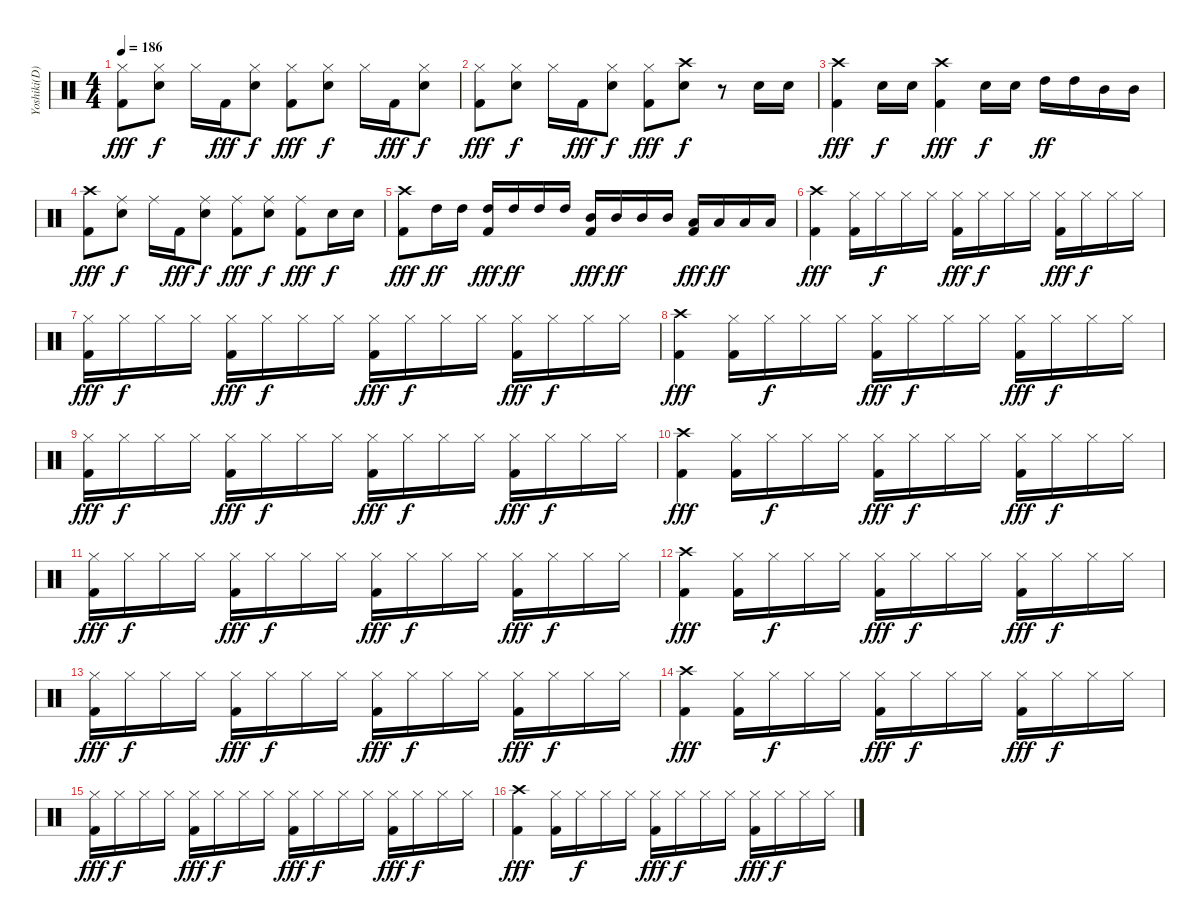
\track ("Yoshiki(D)" "Yoshiki(D)") {instrument percussion}
\staff {score}
\articulation defaults
\ts (4 4)
\tempo 186
\clef neutral
\ks c
("Hi-Hat (closed)" "Kick (hit) 2").8{dy fff} ("Hi-Hat (closed)" "Electric Snare (hit)").8{dy f} "Hi-Hat (closed)".16 "Kick (hit) 2".16{dy fff} ("Hi-Hat (closed)" "Electric Snare (hit)").8{dy f} ("Hi-Hat (closed)" "Kick (hit) 2").8{dy fff} ("Hi-Hat (closed)" "Electric Snare (hit)").8{dy f} "Hi-Hat (closed)".16 "Kick (hit) 2".16{dy fff} ("Hi-Hat (closed)" "Electric Snare (hit)").8{dy f} |
("Hi-Hat (closed)" "Kick (hit) 2").8{dy fff} ("Hi-Hat (closed)" "Electric Snare (hit)").8{dy f} "Hi-Hat (closed)".16 "Kick (hit) 2".16{dy fff} ("Hi-Hat (closed)" "Electric Snare (hit)").8{dy f} ("Hi-Hat (closed)" "Kick (hit) 2").8{dy fff} ("Crash high (hit)" "Electric Snare (hit)").8{dy f} r.8 "Electric Snare (hit)".16 "Electric Snare (hit)".16 |
("Crash high (hit)" "Kick (hit) 2").4{dy fff} "Electric Snare (hit)".16{dy f} "Electric Snare (hit)".16 ("Crash high (hit)" "Kick (hit) 2").4{dy fff} "Electric Snare (hit)".16{dy f} "Electric Snare (hit)".16 "High Tom (hit)".16{dy ff} "High Tom (hit)".16 "Mid Tom (hit)".16 "Mid Tom (hit)".16 |
("Crash high (hit)" "Kick (hit) 2").8{dy fff} ("Ride (middle)" "Electric Snare (hit)").8{dy f} "Ride (middle)".16 "Kick (hit) 2".16{dy fff} ("Ride (middle)" "Electric Snare (hit)").8{dy f} ("Ride (middle)" "Kick (hit) 2").8{dy fff} ("Ride (middle)" "Electric Snare (hit)").8{dy f} ("Ride (middle)" "Kick (hit) 2").8{dy fff} "Electric Snare (hit)".16{dy f} "Electric Snare (hit)".16 |
("Crash high (hit)" "Kick (hit) 2").8{dy fff} "High Tom (hit)".16{dy ff} "High Tom (hit)".16 ("High Tom (hit)" "Kick (hit) 2").16{dy fff} "High Tom (hit)".16{dy ff} "High Tom (hit)".16 "High Tom (hit)".16 ("Mid Tom (hit)" "Kick (hit) 2").16{dy fff} "Mid Tom (hit)".16{dy ff} "Mid Tom (hit)".16 "Mid Tom (hit)".16 ("Low Tom (hit)" "Kick (hit) 2").16{dy fff} "Low Tom (hit)".16{dy ff} "Low Tom (hit)".16 "Low Tom (hit)".16 |
("Crash high (hit)" "Kick (hit) 2").4{dy fff} ("Hi-Hat (closed)" "Kick (hit) 2").16 "Hi-Hat (closed)".16{dy f} "Hi-Hat (closed)".16 "Hi-Hat (closed)".16 ("Hi-Hat (closed)" "Kick (hit) 2").16{dy fff} "Hi-Hat (closed)".16{dy f} "Hi-Hat (closed)".16 "Hi-Hat (closed)".16 ("Hi-Hat (closed)" "Kick (hit) 2").16{dy fff} "Hi-Hat (closed)".16{dy f} "Hi-Hat (closed)".16 "Hi-Hat (closed)".16 |
("Hi-Hat (closed)" "Kick (hit) 2").16{dy fff} "Hi-Hat (closed)".16{dy f} "Hi-Hat (closed)".16 "Hi-Hat (closed)".16 ("Hi-Hat (closed)" "Kick (hit) 2").16{dy fff} "Hi-Hat (closed)".16{dy f} "Hi-Hat (closed)".16 "Hi-Hat (closed)".16 ("Hi-Hat (closed)" "Kick (hit) 2").16{dy fff} "Hi-Hat (closed)".16{dy f} "Hi-Hat (closed)".16 "Hi-Hat (closed)".16 ("Hi-Hat (closed)" "Kick (hit) 2").16{dy fff} "Hi-Hat (closed)".16{dy f} "Hi-Hat (closed)".16 "Hi-Hat (closed)".16 |
("Crash high (hit)" "Kick (hit) 2").4{dy fff} ("Hi-Hat (closed)" "Kick (hit) 2").16 "Hi-Hat (closed)".16{dy f} "Hi-Hat (closed)".16 "Hi-Hat (closed)".16 ("Hi-Hat (closed)" "Kick (hit) 2").16{dy fff} "Hi-Hat (closed)".16{dy f} "Hi-Hat (closed)".16 "Hi-Hat (closed)".16 ("Hi-Hat (closed)" "Kick (hit) 2").16{dy fff} "Hi-Hat (closed)".16{dy f} "Hi-Hat (closed)".16 "Hi-Hat (closed)".16 |
("Hi-Hat (closed)" "Kick (hit) 2").16{dy fff} "Hi-Hat (closed)".16{dy f} "Hi-Hat (closed)".16 "Hi-Hat (closed)".16 ("Hi-Hat (closed)" "Kick (hit) 2").16{dy fff} "Hi-Hat (closed)".16{dy f} "Hi-Hat (closed)".16 "Hi-Hat (closed)".16 ("Hi-Hat (closed)" "Kick (hit) 2").16{dy fff} "Hi-Hat (closed)".16{dy f} "Hi-Hat (closed)".16 "Hi-Hat (closed)".16 ("Hi-Hat (closed)" "Kick (hit) 2").16{dy fff} "Hi-Hat (closed)".16{dy f} "Hi-Hat (closed)".16 "Hi-Hat (closed)".16 |
("Crash high (hit)" "Kick (hit) 2").4{dy fff} ("Hi-Hat (closed)" "Kick (hit) 2").16 "Hi-Hat (closed)".16{dy f} "Hi-Hat (closed)".16 "Hi-Hat (closed)".16 ("Hi-Hat (closed)" "Kick (hit) 2").16{dy fff} "Hi-Hat (closed)".16{dy f} "Hi-Hat (closed)".16 "Hi-Hat (closed)".16 ("Hi-Hat (closed)" "Kick (hit) 2").16{dy fff} "Hi-Hat (closed)".16{dy f} "Hi-Hat (closed)".16 "Hi-Hat (closed)".16 |
("Hi-Hat (closed)" "Kick (hit) 2").16{dy fff} "Hi-Hat (closed)".16{dy f} "Hi-Hat (closed)".16 "Hi-Hat (closed)".16 ("Hi-Hat (closed)" "Kick (hit) 2").16{dy fff} "Hi-Hat (closed)".16{dy f} "Hi-Hat (closed)".16 "Hi-Hat (closed)".16 ("Hi-Hat (closed)" "Kick (hit) 2").16{dy fff} "Hi-Hat (closed)".16{dy f} "Hi-Hat (closed)".16 "Hi-Hat (closed)".16 ("Hi-Hat (closed)" "Kick (hit) 2").16{dy fff} "Hi-Hat (closed)".16{dy f} "Hi-Hat (closed)".16 "Hi-Hat (closed)".16 |
("Crash high (hit)" "Kick (hit) 2").4{dy fff} ("Hi-Hat (closed)" "Kick (hit) 2").16 "Hi-Hat (closed)".16{dy f} "Hi-Hat (closed)".16 "Hi-Hat (closed)".16 ("Hi-Hat (closed)" "Kick (hit) 2").16{dy fff} "Hi-Hat (closed)".16{dy f} "Hi-Hat (closed)".16 "Hi-Hat (closed)".16 ("Hi-Hat (closed)" "Kick (hit) 2").16{dy fff} "Hi-Hat (closed)".16{dy f} "Hi-Hat (closed)".16 "Hi-Hat (closed)".16 |
("Hi-Hat (closed)" "Kick (hit) 2").16{dy fff} "Hi-Hat (closed)".16{dy f} "Hi-Hat (closed)".16 "Hi-Hat (closed)".16 ("Hi-Hat (closed)" "Kick (hit) 2").16{dy fff} "Hi-Hat (closed)".16{dy f} "Hi-Hat (closed)".16 "Hi-Hat (closed)".16 ("Hi-Hat (closed)" "Kick (hit) 2").16{dy fff} "Hi-Hat (closed)".16{dy f} "Hi-Hat (closed)".16 "Hi-Hat (closed)".16 ("Hi-Hat (closed)" "Kick (hit) 2").16{dy fff} "Hi-Hat (closed)".16{dy f} "Hi-Hat (closed)".16 "Hi-Hat (closed)".16 |
("Crash high (hit)" "Kick (hit) 2").4{dy fff} ("Hi-Hat (closed)" "Kick (hit) 2").16 "Hi-Hat (closed)".16{dy f} "Hi-Hat (closed)".16 "Hi-Hat (closed)".16 ("Hi-Hat (closed)" "Kick (hit) 2").16{dy fff} "Hi-Hat (closed)".16{dy f} "Hi-Hat (closed)".16 "Hi-Hat (closed)".16 ("Hi-Hat (closed)" "Kick (hit) 2").16{dy fff} "Hi-Hat (closed)".16{dy f} "Hi-Hat (closed)".16 "Hi-Hat (closed)".16 |
("Hi-Hat (closed)" "Kick (hit) 2").16{dy fff} "Hi-Hat (closed)".16{dy f} "Hi-Hat (closed)".16 "Hi-Hat (closed)".16 ("Hi-Hat (closed)" "Kick (hit) 2").16{dy fff} "Hi-Hat (closed)".16{dy f} "Hi-Hat (closed)".16 "Hi-Hat (closed)".16 ("Hi-Hat (closed)" "Kick (hit) 2").16{dy fff} "Hi-Hat (closed)".16{dy f} "Hi-Hat (closed)".16 "Hi-Hat (closed)".16 ("Hi-Hat (closed)" "Kick (hit) 2").16{dy fff} "Hi-Hat (closed)".16{dy f} "Hi-Hat (closed)".16 "Hi-Hat (closed)".16 |
("Crash high (hit)" "Kick (hit) 2").4{dy fff} ("Hi-Hat (closed)" "Kick (hit) 2").16 "Hi-Hat (closed)".16{dy f} "Hi-Hat (closed)".16 "Hi-Hat (closed)".16 ("Hi-Hat (closed)" "Kick (hit) 2").16{dy fff} "Hi-Hat (closed)".16{dy f} "Hi-Hat (closed)".16 "Hi-Hat (closed)".16 ("Hi-Hat (closed)" "Kick (hit) 2").16{dy fff} "Hi-Hat (closed)".16{dy f} "Hi-Hat (closed)".16 "Hi-Hat (closed)".16
